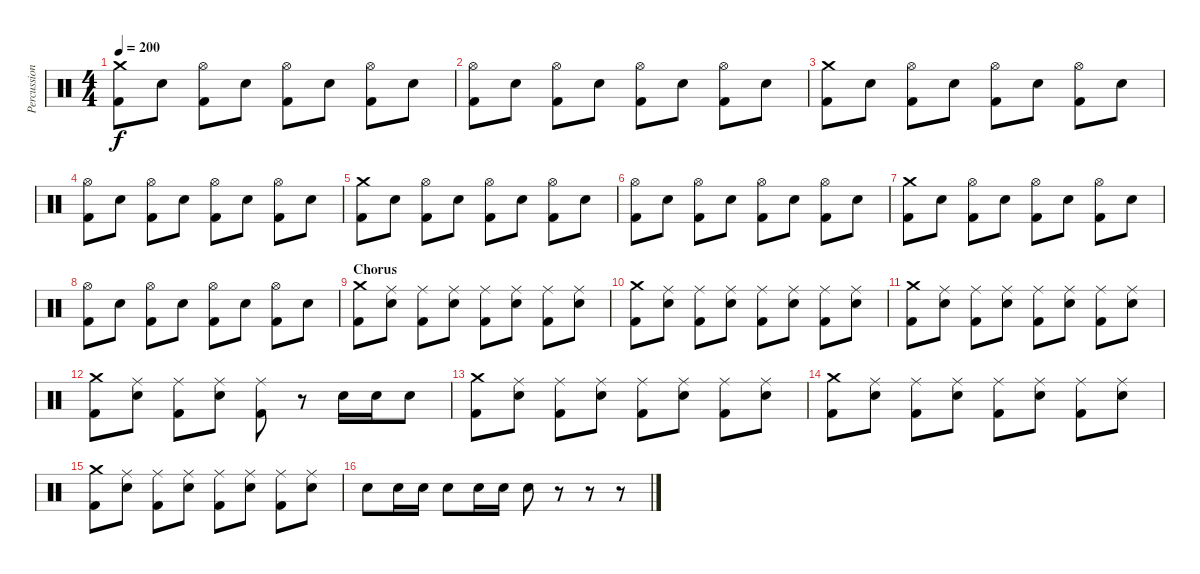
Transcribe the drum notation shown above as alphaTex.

\track ("Percussion" "Percussion") {instrument percussion}
\staff {score}
\articulation defaults
\ts (4 4)
\tempo 200
\clef neutral
\ks c
("Crash medium (hit)" "Kick (hit) 2").8{dy f} "Snare (hit) 2".8 ("Hi-Hat (open)" "Kick (hit) 2").8 "Snare (hit) 2".8 ("Hi-Hat (open)" "Kick (hit) 2").8 "Snare (hit) 2".8 ("Hi-Hat (open)" "Kick (hit) 2").8 "Snare (hit) 2".8 |
("Hi-Hat (open)" "Kick (hit) 2").8 "Snare (hit) 2".8 ("Hi-Hat (open)" "Kick (hit) 2").8 "Snare (hit) 2".8 ("Hi-Hat (open)" "Kick (hit) 2").8 "Snare (hit) 2".8 ("Hi-Hat (open)" "Kick (hit) 2").8 "Snare (hit) 2".8 |
("Crash medium (hit)" "Kick (hit) 2").8 "Snare (hit) 2".8 ("Hi-Hat (open)" "Kick (hit) 2").8 "Snare (hit) 2".8 ("Hi-Hat (open)" "Kick (hit) 2").8 "Snare (hit) 2".8 ("Hi-Hat (open)" "Kick (hit) 2").8 "Snare (hit) 2".8 |
("Hi-Hat (open)" "Kick (hit) 2").8 "Snare (hit) 2".8 ("Hi-Hat (open)" "Kick (hit) 2").8 "Snare (hit) 2".8 ("Hi-Hat (open)" "Kick (hit) 2").8 "Snare (hit) 2".8 ("Hi-Hat (open)" "Kick (hit) 2").8 "Snare (hit) 2".8 |
("Crash medium (hit)" "Kick (hit) 2").8 "Snare (hit) 2".8 ("Hi-Hat (open)" "Kick (hit) 2").8 "Snare (hit) 2".8 ("Hi-Hat (open)" "Kick (hit) 2").8 "Snare (hit) 2".8 ("Hi-Hat (open)" "Kick (hit) 2").8 "Snare (hit) 2".8 |
("Hi-Hat (open)" "Kick (hit) 2").8 "Snare (hit) 2".8 ("Hi-Hat (open)" "Kick (hit) 2").8 "Snare (hit) 2".8 ("Hi-Hat (open)" "Kick (hit) 2").8 "Snare (hit) 2".8 ("Hi-Hat (open)" "Kick (hit) 2").8 "Snare (hit) 2".8 |
("Crash medium (hit)" "Kick (hit) 2").8 "Snare (hit) 2".8 ("Hi-Hat (open)" "Kick (hit) 2").8 "Snare (hit) 2".8 ("Hi-Hat (open)" "Kick (hit) 2").8 "Snare (hit) 2".8 ("Hi-Hat (open)" "Kick (hit) 2").8 "Snare (hit) 2".8 |
("Hi-Hat (open)" "Kick (hit) 2").8 "Snare (hit) 2".8 ("Hi-Hat (open)" "Kick (hit) 2").8 "Snare (hit) 2".8 ("Hi-Hat (open)" "Kick (hit) 2").8 "Snare (hit) 2".8 ("Hi-Hat (open)" "Kick (hit) 2").8 "Snare (hit) 2".8 |
\section ("" "Chorus")
("Crash medium (hit)" "Kick (hit) 2").8 ("Ride (middle)" "Snare (hit) 2").8 ("Ride (middle)" "Kick (hit) 2").8 ("Ride (middle)" "Snare (hit) 2").8 ("Ride (middle)" "Kick (hit) 2").8 ("Ride (middle)" "Snare (hit) 2").8 ("Ride (middle)" "Kick (hit) 2").8 ("Ride (middle)" "Snare (hit) 2").8 |
("Crash medium (hit)" "Kick (hit) 2").8 ("Ride (middle)" "Snare (hit) 2").8 ("Ride (middle)" "Kick (hit) 2").8 ("Ride (middle)" "Snare (hit) 2").8 ("Ride (middle)" "Kick (hit) 2").8 ("Ride (middle)" "Snare (hit) 2").8 ("Ride (middle)" "Kick (hit) 2").8 ("Ride (middle)" "Snare (hit) 2").8 |
("Crash medium (hit)" "Kick (hit) 2").8 ("Ride (middle)" "Snare (hit) 2").8 ("Ride (middle)" "Kick (hit) 2").8 ("Ride (middle)" "Snare (hit) 2").8 ("Ride (middle)" "Kick (hit) 2").8 ("Ride (middle)" "Snare (hit) 2").8 ("Ride (middle)" "Kick (hit) 2").8 ("Ride (middle)" "Snare (hit) 2").8 |
("Crash medium (hit)" "Kick (hit) 2").8 ("Ride (middle)" "Snare (hit) 2").8 ("Ride (middle)" "Kick (hit) 2").8 ("Ride (middle)" "Snare (hit) 2").8 ("Ride (middle)" "Kick (hit) 2").8 r.8 "Snare (hit) 2".16 "Snare (hit) 2".16 "Snare (hit) 2".8 |
("Crash medium (hit)" "Kick (hit) 2").8 ("Ride (middle)" "Snare (hit) 2").8 ("Ride (middle)" "Kick (hit) 2").8 ("Ride (middle)" "Snare (hit) 2").8 ("Ride (middle)" "Kick (hit) 2").8 ("Ride (middle)" "Snare (hit) 2").8 ("Ride (middle)" "Kick (hit) 2").8 ("Ride (middle)" "Snare (hit) 2").8 |
("Crash medium (hit)" "Kick (hit) 2").8 ("Ride (middle)" "Snare (hit) 2").8 ("Ride (middle)" "Kick (hit) 2").8 ("Ride (middle)" "Snare (hit) 2").8 ("Ride (middle)" "Kick (hit) 2").8 ("Ride (middle)" "Snare (hit) 2").8 ("Ride (middle)" "Kick (hit) 2").8 ("Ride (middle)" "Snare (hit) 2").8 |
("Crash medium (hit)" "Kick (hit) 2").8 ("Ride (middle)" "Snare (hit) 2").8 ("Ride (middle)" "Kick (hit) 2").8 ("Ride (middle)" "Snare (hit) 2").8 ("Ride (middle)" "Kick (hit) 2").8 ("Ride (middle)" "Snare (hit) 2").8 ("Ride (middle)" "Kick (hit) 2").8 ("Ride (middle)" "Snare (hit) 2").8 |
"Snare (hit) 2".8 "Snare (hit) 2".16 "Snare (hit) 2".16 "Snare (hit) 2".8 "Snare (hit) 2".16 "Snare (hit) 2".16 "Snare (hit) 2".8 r.8 r.8 r.8
